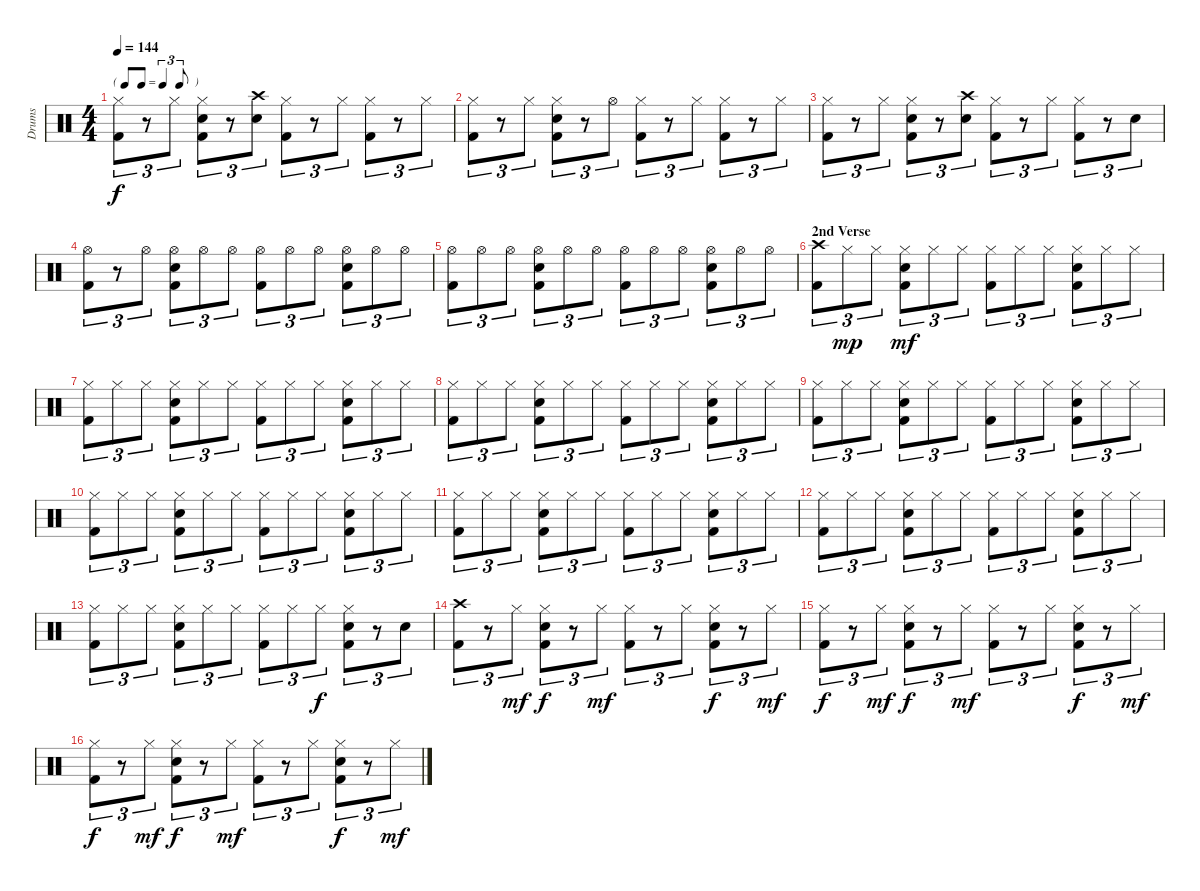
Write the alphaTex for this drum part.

\track ("Drums" "Drums") {instrument percussion}
\staff {score}
\articulation defaults
\ts (4 4)
\tf triplet8th
\tempo 144
\clef neutral
\ks c
("Hi-Hat (closed)" "Kick (hit) 2").8{tu (3 2) dy f} r.8{tu (3 2)} "Hi-Hat (closed)".8{tu (3 2)} ("Hi-Hat (closed)" "Snare (hit) 2" "Kick (hit) 2").8{tu (3 2)} r.8{tu (3 2)} ("Crash high (hit)" "Snare (hit) 2").8{tu (3 2)} ("Hi-Hat (closed)" "Kick (hit) 2").8{tu (3 2)} r.8{tu (3 2)} "Hi-Hat (closed)".8{tu (3 2)} ("Hi-Hat (closed)" "Kick (hit) 2").8{tu (3 2)} r.8{tu (3 2)} "Hi-Hat (closed)".8{tu (3 2)} |
("Hi-Hat (closed)" "Kick (hit) 2").8{tu (3 2)} r.8{tu (3 2)} "Hi-Hat (closed)".8{tu (3 2)} ("Hi-Hat (closed)" "Snare (hit) 2" "Kick (hit) 2").8{tu (3 2)} r.8{tu (3 2)} "Hi-Hat (open)".8{tu (3 2)} ("Hi-Hat (closed)" "Kick (hit) 2").8{tu (3 2)} r.8{tu (3 2)} "Hi-Hat (closed)".8{tu (3 2)} ("Hi-Hat (closed)" "Kick (hit) 2").8{tu (3 2)} r.8{tu (3 2)} "Hi-Hat (closed)".8{tu (3 2)} |
("Hi-Hat (closed)" "Kick (hit) 2").8{tu (3 2)} r.8{tu (3 2)} "Hi-Hat (closed)".8{tu (3 2)} ("Hi-Hat (closed)" "Snare (hit) 2" "Kick (hit) 2").8{tu (3 2)} r.8{tu (3 2)} ("Crash high (hit)" "Snare (hit) 2").8{tu (3 2)} ("Hi-Hat (closed)" "Kick (hit) 2").8{tu (3 2)} r.8{tu (3 2)} "Hi-Hat (closed)".8{tu (3 2)} ("Hi-Hat (closed)" "Kick (hit) 2").8{tu (3 2)} r.8{tu (3 2)} "Snare (hit) 2".8{tu (3 2)} |
("Hi-Hat (open)" "Kick (hit) 2").8{tu (3 2)} r.8{tu (3 2)} "Hi-Hat (open)".8{tu (3 2)} ("Hi-Hat (open)" "Snare (hit) 2" "Kick (hit) 2").8{tu (3 2)} "Hi-Hat (open)".8{tu (3 2)} "Hi-Hat (open)".8{tu (3 2)} ("Hi-Hat (open)" "Kick (hit) 2").8{tu (3 2)} "Hi-Hat (open)".8{tu (3 2)} "Hi-Hat (open)".8{tu (3 2)} ("Hi-Hat (open)" "Snare (hit) 2" "Kick (hit) 2").8{tu (3 2)} "Hi-Hat (open)".8{tu (3 2)} "Hi-Hat (open)".8{tu (3 2)} |
("Hi-Hat (open)" "Kick (hit) 2").8{tu (3 2)} "Hi-Hat (open)".8{tu (3 2)} "Hi-Hat (open)".8{tu (3 2)} ("Hi-Hat (open)" "Snare (hit) 2" "Kick (hit) 2").8{tu (3 2)} "Hi-Hat (open)".8{tu (3 2)} "Hi-Hat (open)".8{tu (3 2)} ("Hi-Hat (open)" "Kick (hit) 2").8{tu (3 2)} "Hi-Hat (open)".8{tu (3 2)} "Hi-Hat (open)".8{tu (3 2)} ("Hi-Hat (open)" "Snare (hit) 2" "Kick (hit) 2").8{tu (3 2)} "Hi-Hat (open)".8{tu (3 2)} "Hi-Hat (open)".8{tu (3 2)} |
\section ("" "2nd Verse")
("Crash high (hit)" "Kick (hit) 2").8{tu (3 2)} "Hi-Hat (closed)".8{tu (3 2) dy mp} "Hi-Hat (closed)".8{tu (3 2)} ("Hi-Hat (closed)" "Snare (hit) 2" "Kick (hit) 2").8{tu (3 2) dy mf} "Hi-Hat (closed)".8{tu (3 2)} "Hi-Hat (closed)".8{tu (3 2)} ("Hi-Hat (closed)" "Kick (hit) 2").8{tu (3 2)} "Hi-Hat (closed)".8{tu (3 2)} "Hi-Hat (closed)".8{tu (3 2)} ("Hi-Hat (closed)" "Snare (hit) 2" "Kick (hit) 2").8{tu (3 2)} "Hi-Hat (closed)".8{tu (3 2)} "Hi-Hat (closed)".8{tu (3 2)} |
("Hi-Hat (closed)" "Kick (hit) 2").8{tu (3 2)} "Hi-Hat (closed)".8{tu (3 2)} "Hi-Hat (closed)".8{tu (3 2)} ("Hi-Hat (closed)" "Snare (hit) 2" "Kick (hit) 2").8{tu (3 2)} "Hi-Hat (closed)".8{tu (3 2)} "Hi-Hat (closed)".8{tu (3 2)} ("Hi-Hat (closed)" "Kick (hit) 2").8{tu (3 2)} "Hi-Hat (closed)".8{tu (3 2)} "Hi-Hat (closed)".8{tu (3 2)} ("Hi-Hat (closed)" "Snare (hit) 2" "Kick (hit) 2").8{tu (3 2)} "Hi-Hat (closed)".8{tu (3 2)} "Hi-Hat (closed)".8{tu (3 2)} |
("Hi-Hat (closed)" "Kick (hit) 2").8{tu (3 2)} "Hi-Hat (closed)".8{tu (3 2)} "Hi-Hat (closed)".8{tu (3 2)} ("Hi-Hat (closed)" "Snare (hit) 2" "Kick (hit) 2").8{tu (3 2)} "Hi-Hat (closed)".8{tu (3 2)} "Hi-Hat (closed)".8{tu (3 2)} ("Hi-Hat (closed)" "Kick (hit) 2").8{tu (3 2)} "Hi-Hat (closed)".8{tu (3 2)} "Hi-Hat (closed)".8{tu (3 2)} ("Hi-Hat (closed)" "Snare (hit) 2" "Kick (hit) 2").8{tu (3 2)} "Hi-Hat (closed)".8{tu (3 2)} "Hi-Hat (closed)".8{tu (3 2)} |
("Hi-Hat (closed)" "Kick (hit) 2").8{tu (3 2)} "Hi-Hat (closed)".8{tu (3 2)} "Hi-Hat (closed)".8{tu (3 2)} ("Hi-Hat (closed)" "Snare (hit) 2" "Kick (hit) 2").8{tu (3 2)} "Hi-Hat (closed)".8{tu (3 2)} "Hi-Hat (closed)".8{tu (3 2)} ("Hi-Hat (closed)" "Kick (hit) 2").8{tu (3 2)} "Hi-Hat (closed)".8{tu (3 2)} "Hi-Hat (closed)".8{tu (3 2)} ("Hi-Hat (closed)" "Snare (hit) 2" "Kick (hit) 2").8{tu (3 2)} "Hi-Hat (closed)".8{tu (3 2)} "Hi-Hat (closed)".8{tu (3 2)} |
("Hi-Hat (closed)" "Kick (hit) 2").8{tu (3 2)} "Hi-Hat (closed)".8{tu (3 2)} "Hi-Hat (closed)".8{tu (3 2)} ("Hi-Hat (closed)" "Snare (hit) 2" "Kick (hit) 2").8{tu (3 2)} "Hi-Hat (closed)".8{tu (3 2)} "Hi-Hat (closed)".8{tu (3 2)} ("Hi-Hat (closed)" "Kick (hit) 2").8{tu (3 2)} "Hi-Hat (closed)".8{tu (3 2)} "Hi-Hat (closed)".8{tu (3 2)} ("Hi-Hat (closed)" "Snare (hit) 2" "Kick (hit) 2").8{tu (3 2)} "Hi-Hat (closed)".8{tu (3 2)} "Hi-Hat (closed)".8{tu (3 2)} |
("Hi-Hat (closed)" "Kick (hit) 2").8{tu (3 2)} "Hi-Hat (closed)".8{tu (3 2)} "Hi-Hat (closed)".8{tu (3 2)} ("Hi-Hat (closed)" "Snare (hit) 2" "Kick (hit) 2").8{tu (3 2)} "Hi-Hat (closed)".8{tu (3 2)} "Hi-Hat (closed)".8{tu (3 2)} ("Hi-Hat (closed)" "Kick (hit) 2").8{tu (3 2)} "Hi-Hat (closed)".8{tu (3 2)} "Hi-Hat (closed)".8{tu (3 2)} ("Hi-Hat (closed)" "Snare (hit) 2" "Kick (hit) 2").8{tu (3 2)} "Hi-Hat (closed)".8{tu (3 2)} "Hi-Hat (closed)".8{tu (3 2)} |
("Hi-Hat (closed)" "Kick (hit) 2").8{tu (3 2)} "Hi-Hat (closed)".8{tu (3 2)} "Hi-Hat (closed)".8{tu (3 2)} ("Hi-Hat (closed)" "Snare (hit) 2" "Kick (hit) 2").8{tu (3 2)} "Hi-Hat (closed)".8{tu (3 2)} "Hi-Hat (closed)".8{tu (3 2)} ("Hi-Hat (closed)" "Kick (hit) 2").8{tu (3 2)} "Hi-Hat (closed)".8{tu (3 2)} "Hi-Hat (closed)".8{tu (3 2)} ("Hi-Hat (closed)" "Snare (hit) 2" "Kick (hit) 2").8{tu (3 2)} "Hi-Hat (closed)".8{tu (3 2)} "Hi-Hat (closed)".8{tu (3 2)} |
("Hi-Hat (closed)" "Kick (hit) 2").8{tu (3 2)} "Hi-Hat (closed)".8{tu (3 2)} "Hi-Hat (closed)".8{tu (3 2)} ("Hi-Hat (closed)" "Snare (hit) 2" "Kick (hit) 2").8{tu (3 2)} "Hi-Hat (closed)".8{tu (3 2)} "Hi-Hat (closed)".8{tu (3 2)} ("Hi-Hat (closed)" "Kick (hit) 2").8{tu (3 2)} "Hi-Hat (closed)".8{tu (3 2)} "Hi-Hat (closed)".8{tu (3 2) dy f} ("Hi-Hat (closed)" "Snare (hit) 2" "Kick (hit) 2").8{tu (3 2)} r.8{tu (3 2)} "Snare (hit) 2".8{tu (3 2)} |
("Crash high (hit)" "Kick (hit) 2").8{tu (3 2)} r.8{tu (3 2)} "Hi-Hat (closed)".8{tu (3 2) dy mf} ("Hi-Hat (closed)" "Snare (hit) 2" "Kick (hit) 2").8{tu (3 2) dy f} r.8{tu (3 2)} "Hi-Hat (closed)".8{tu (3 2) dy mf} ("Hi-Hat (closed)" "Kick (hit) 2").8{tu (3 2)} r.8{tu (3 2)} "Hi-Hat (closed)".8{tu (3 2)} ("Hi-Hat (closed)" "Snare (hit) 2" "Kick (hit) 2").8{tu (3 2) dy f} r.8{tu (3 2)} "Hi-Hat (closed)".8{tu (3 2) dy mf} |
("Hi-Hat (closed)" "Kick (hit) 2").8{tu (3 2) dy f} r.8{tu (3 2)} "Hi-Hat (closed)".8{tu (3 2) dy mf} ("Hi-Hat (closed)" "Snare (hit) 2" "Kick (hit) 2").8{tu (3 2) dy f} r.8{tu (3 2)} "Hi-Hat (closed)".8{tu (3 2) dy mf} ("Hi-Hat (closed)" "Kick (hit) 2").8{tu (3 2)} r.8{tu (3 2)} "Hi-Hat (closed)".8{tu (3 2)} ("Hi-Hat (closed)" "Snare (hit) 2" "Kick (hit) 2").8{tu (3 2) dy f} r.8{tu (3 2)} "Hi-Hat (closed)".8{tu (3 2) dy mf} |
("Hi-Hat (closed)" "Kick (hit) 2").8{tu (3 2) dy f} r.8{tu (3 2)} "Hi-Hat (closed)".8{tu (3 2) dy mf} ("Hi-Hat (closed)" "Snare (hit) 2" "Kick (hit) 2").8{tu (3 2) dy f} r.8{tu (3 2)} "Hi-Hat (closed)".8{tu (3 2) dy mf} ("Hi-Hat (closed)" "Kick (hit) 2").8{tu (3 2)} r.8{tu (3 2)} "Hi-Hat (closed)".8{tu (3 2)} ("Hi-Hat (closed)" "Snare (hit) 2" "Kick (hit) 2").8{tu (3 2) dy f} r.8{tu (3 2)} "Hi-Hat (closed)".8{tu (3 2) dy mf}
